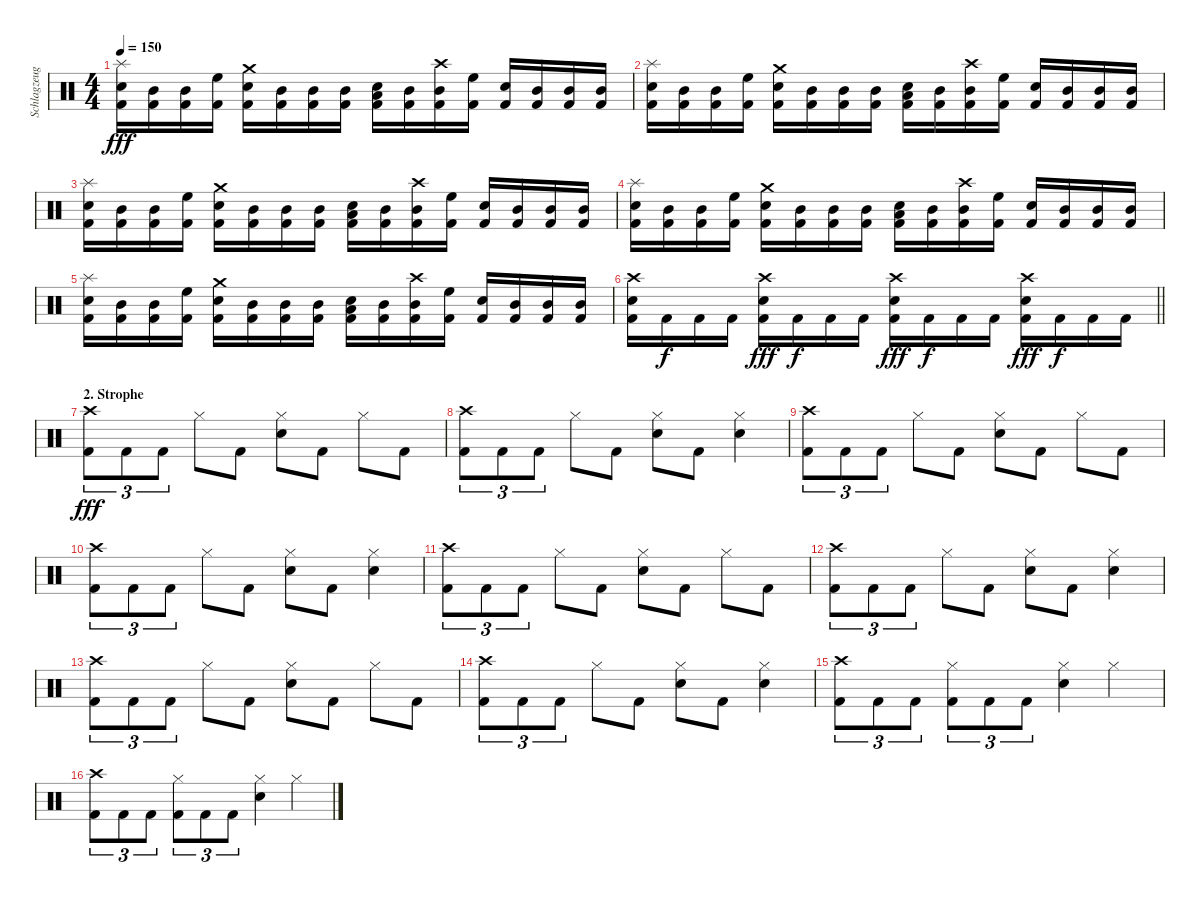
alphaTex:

\track ("Schlagzeug" "Schlagzeug") {instrument percussion}
\staff {score}
\articulation defaults
\ts (4 4)
\tempo 150
\clef neutral
\ks c
("Snare (hit) 2" "Splash (hit)" "Kick (hit) 2").16{dy fff} ("Mid Tom (hit)" "Kick (hit) 2").16 ("Mid Tom (hit)" "Kick (hit) 2").16 ("High Floor Tom (hit)" "Kick (hit) 2").16 ("Snare (hit) 2" "Crash medium (hit)" "Kick (hit) 2").16 ("Mid Tom (hit)" "Kick (hit) 2").16 ("Mid Tom (hit)" "Kick (hit) 2").16 ("Mid Tom (hit)" "Kick (hit) 2").16 ("Snare (hit) 2" "Low Tom (hit)" "Kick (hit) 2").16 ("Mid Tom (hit)" "Kick (hit) 2").16 ("Mid Tom (hit)" "Crash high (hit)" "Kick (hit) 2").16 ("High Floor Tom (hit)" "Kick (hit) 2").16 ("Snare (hit) 2" "Kick (hit) 2").16 ("Mid Tom (hit)" "Kick (hit) 2").16 ("Mid Tom (hit)" "Kick (hit) 2").16 ("Mid Tom (hit)" "Kick (hit) 2").16 |
("Snare (hit) 2" "Splash (hit)" "Kick (hit) 2").16 ("Mid Tom (hit)" "Kick (hit) 2").16 ("Mid Tom (hit)" "Kick (hit) 2").16 ("High Floor Tom (hit)" "Kick (hit) 2").16 ("Snare (hit) 2" "Crash medium (hit)" "Kick (hit) 2").16 ("Mid Tom (hit)" "Kick (hit) 2").16 ("Mid Tom (hit)" "Kick (hit) 2").16 ("Mid Tom (hit)" "Kick (hit) 2").16 ("Snare (hit) 2" "Low Tom (hit)" "Kick (hit) 2").16 ("Mid Tom (hit)" "Kick (hit) 2").16 ("Mid Tom (hit)" "Crash high (hit)" "Kick (hit) 2").16 ("High Floor Tom (hit)" "Kick (hit) 2").16 ("Snare (hit) 2" "Kick (hit) 2").16 ("Mid Tom (hit)" "Kick (hit) 2").16 ("Mid Tom (hit)" "Kick (hit) 2").16 ("Mid Tom (hit)" "Kick (hit) 2").16 |
("Snare (hit) 2" "Splash (hit)" "Kick (hit) 2").16 ("Mid Tom (hit)" "Kick (hit) 2").16 ("Mid Tom (hit)" "Kick (hit) 2").16 ("High Floor Tom (hit)" "Kick (hit) 2").16 ("Snare (hit) 2" "Crash medium (hit)" "Kick (hit) 2").16 ("Mid Tom (hit)" "Kick (hit) 2").16 ("Mid Tom (hit)" "Kick (hit) 2").16 ("Mid Tom (hit)" "Kick (hit) 2").16 ("Snare (hit) 2" "Low Tom (hit)" "Kick (hit) 2").16 ("Mid Tom (hit)" "Kick (hit) 2").16 ("Mid Tom (hit)" "Crash high (hit)" "Kick (hit) 2").16 ("High Floor Tom (hit)" "Kick (hit) 2").16 ("Snare (hit) 2" "Kick (hit) 2").16 ("Mid Tom (hit)" "Kick (hit) 2").16 ("Mid Tom (hit)" "Kick (hit) 2").16 ("Mid Tom (hit)" "Kick (hit) 2").16 |
("Snare (hit) 2" "Splash (hit)" "Kick (hit) 2").16 ("Mid Tom (hit)" "Kick (hit) 2").16 ("Mid Tom (hit)" "Kick (hit) 2").16 ("High Floor Tom (hit)" "Kick (hit) 2").16 ("Snare (hit) 2" "Crash medium (hit)" "Kick (hit) 2").16 ("Mid Tom (hit)" "Kick (hit) 2").16 ("Mid Tom (hit)" "Kick (hit) 2").16 ("Mid Tom (hit)" "Kick (hit) 2").16 ("Snare (hit) 2" "Low Tom (hit)" "Kick (hit) 2").16 ("Mid Tom (hit)" "Kick (hit) 2").16 ("Mid Tom (hit)" "Crash high (hit)" "Kick (hit) 2").16 ("High Floor Tom (hit)" "Kick (hit) 2").16 ("Snare (hit) 2" "Kick (hit) 2").16 ("Mid Tom (hit)" "Kick (hit) 2").16 ("Mid Tom (hit)" "Kick (hit) 2").16 ("Mid Tom (hit)" "Kick (hit) 2").16 |
("Snare (hit) 2" "Splash (hit)" "Kick (hit) 2").16 ("Mid Tom (hit)" "Kick (hit) 2").16 ("Mid Tom (hit)" "Kick (hit) 2").16 ("High Floor Tom (hit)" "Kick (hit) 2").16 ("Snare (hit) 2" "Crash medium (hit)" "Kick (hit) 2").16 ("Mid Tom (hit)" "Kick (hit) 2").16 ("Mid Tom (hit)" "Kick (hit) 2").16 ("Mid Tom (hit)" "Kick (hit) 2").16 ("Snare (hit) 2" "Low Tom (hit)" "Kick (hit) 2").16 ("Mid Tom (hit)" "Kick (hit) 2").16 ("Mid Tom (hit)" "Crash high (hit)" "Kick (hit) 2").16 ("High Floor Tom (hit)" "Kick (hit) 2").16 ("Snare (hit) 2" "Kick (hit) 2").16 ("Mid Tom (hit)" "Kick (hit) 2").16 ("Mid Tom (hit)" "Kick (hit) 2").16 ("Mid Tom (hit)" "Kick (hit) 2").16 |
\barLineRight lightlight
("Crash high (hit)" "Snare (hit) 2" "Kick (hit) 2").16 "Kick (hit) 2".16{dy f} "Kick (hit) 2".16 "Kick (hit) 2".16 ("Crash high (hit)" "Snare (hit) 2" "Kick (hit) 2").16{dy fff} "Kick (hit) 2".16{dy f} "Kick (hit) 2".16 "Kick (hit) 2".16 ("Crash high (hit)" "Snare (hit) 2" "Kick (hit) 2").16{dy fff} "Kick (hit) 2".16{dy f} "Kick (hit) 2".16 "Kick (hit) 2".16 ("Crash high (hit)" "Snare (hit) 2" "Kick (hit) 2").16{dy fff} "Kick (hit) 2".16{dy f} "Kick (hit) 2".16 "Kick (hit) 2".16 |
\section ("" "2. Strophe")
("Crash high (hit)" "Kick (hit) 2").8{tu (3 2) dy fff} "Kick (hit) 2".8{tu (3 2)} "Kick (hit) 2".8{tu (3 2)} "Hi-Hat (closed)".8 "Kick (hit) 2".8 ("Hi-Hat (closed)" "Snare (hit) 2").8 "Kick (hit) 2".8 "Hi-Hat (closed)".8 "Kick (hit) 2".8 |
("Crash high (hit)" "Kick (hit) 2").8{tu (3 2)} "Kick (hit) 2".8{tu (3 2)} "Kick (hit) 2".8{tu (3 2)} "Hi-Hat (closed)".8 "Kick (hit) 2".8 ("Hi-Hat (closed)" "Snare (hit) 2").8 "Kick (hit) 2".8 ("Hi-Hat (closed)" "Snare (hit) 2").4 |
("Crash high (hit)" "Kick (hit) 2").8{tu (3 2)} "Kick (hit) 2".8{tu (3 2)} "Kick (hit) 2".8{tu (3 2)} "Hi-Hat (closed)".8 "Kick (hit) 2".8 ("Hi-Hat (closed)" "Snare (hit) 2").8 "Kick (hit) 2".8 "Hi-Hat (closed)".8 "Kick (hit) 2".8 |
("Crash high (hit)" "Kick (hit) 2").8{tu (3 2)} "Kick (hit) 2".8{tu (3 2)} "Kick (hit) 2".8{tu (3 2)} "Hi-Hat (closed)".8 "Kick (hit) 2".8 ("Hi-Hat (closed)" "Snare (hit) 2").8 "Kick (hit) 2".8 ("Hi-Hat (closed)" "Snare (hit) 2").4 |
("Crash high (hit)" "Kick (hit) 2").8{tu (3 2)} "Kick (hit) 2".8{tu (3 2)} "Kick (hit) 2".8{tu (3 2)} "Hi-Hat (closed)".8 "Kick (hit) 2".8 ("Hi-Hat (closed)" "Snare (hit) 2").8 "Kick (hit) 2".8 "Hi-Hat (closed)".8 "Kick (hit) 2".8 |
("Crash high (hit)" "Kick (hit) 2").8{tu (3 2)} "Kick (hit) 2".8{tu (3 2)} "Kick (hit) 2".8{tu (3 2)} "Hi-Hat (closed)".8 "Kick (hit) 2".8 ("Hi-Hat (closed)" "Snare (hit) 2").8 "Kick (hit) 2".8 ("Hi-Hat (closed)" "Snare (hit) 2").4 |
("Crash high (hit)" "Kick (hit) 2").8{tu (3 2)} "Kick (hit) 2".8{tu (3 2)} "Kick (hit) 2".8{tu (3 2)} "Hi-Hat (closed)".8 "Kick (hit) 2".8 ("Hi-Hat (closed)" "Snare (hit) 2").8 "Kick (hit) 2".8 "Hi-Hat (closed)".8 "Kick (hit) 2".8 |
("Crash high (hit)" "Kick (hit) 2").8{tu (3 2)} "Kick (hit) 2".8{tu (3 2)} "Kick (hit) 2".8{tu (3 2)} "Hi-Hat (closed)".8 "Kick (hit) 2".8 ("Hi-Hat (closed)" "Snare (hit) 2").8 "Kick (hit) 2".8 ("Hi-Hat (closed)" "Snare (hit) 2").4 |
("Crash high (hit)" "Kick (hit) 2").8{tu (3 2)} "Kick (hit) 2".8{tu (3 2)} "Kick (hit) 2".8{tu (3 2)} ("Hi-Hat (closed)" "Kick (hit) 2").8{tu (3 2)} "Kick (hit) 2".8{tu (3 2)} "Kick (hit) 2".8{tu (3 2)} ("Hi-Hat (closed)" "Snare (hit) 2").4 "Hi-Hat (closed)".4 |
("Crash high (hit)" "Kick (hit) 2").8{tu (3 2)} "Kick (hit) 2".8{tu (3 2)} "Kick (hit) 2".8{tu (3 2)} ("Hi-Hat (closed)" "Kick (hit) 2").8{tu (3 2)} "Kick (hit) 2".8{tu (3 2)} "Kick (hit) 2".8{tu (3 2)} ("Hi-Hat (closed)" "Snare (hit) 2").4 "Hi-Hat (closed)".4
